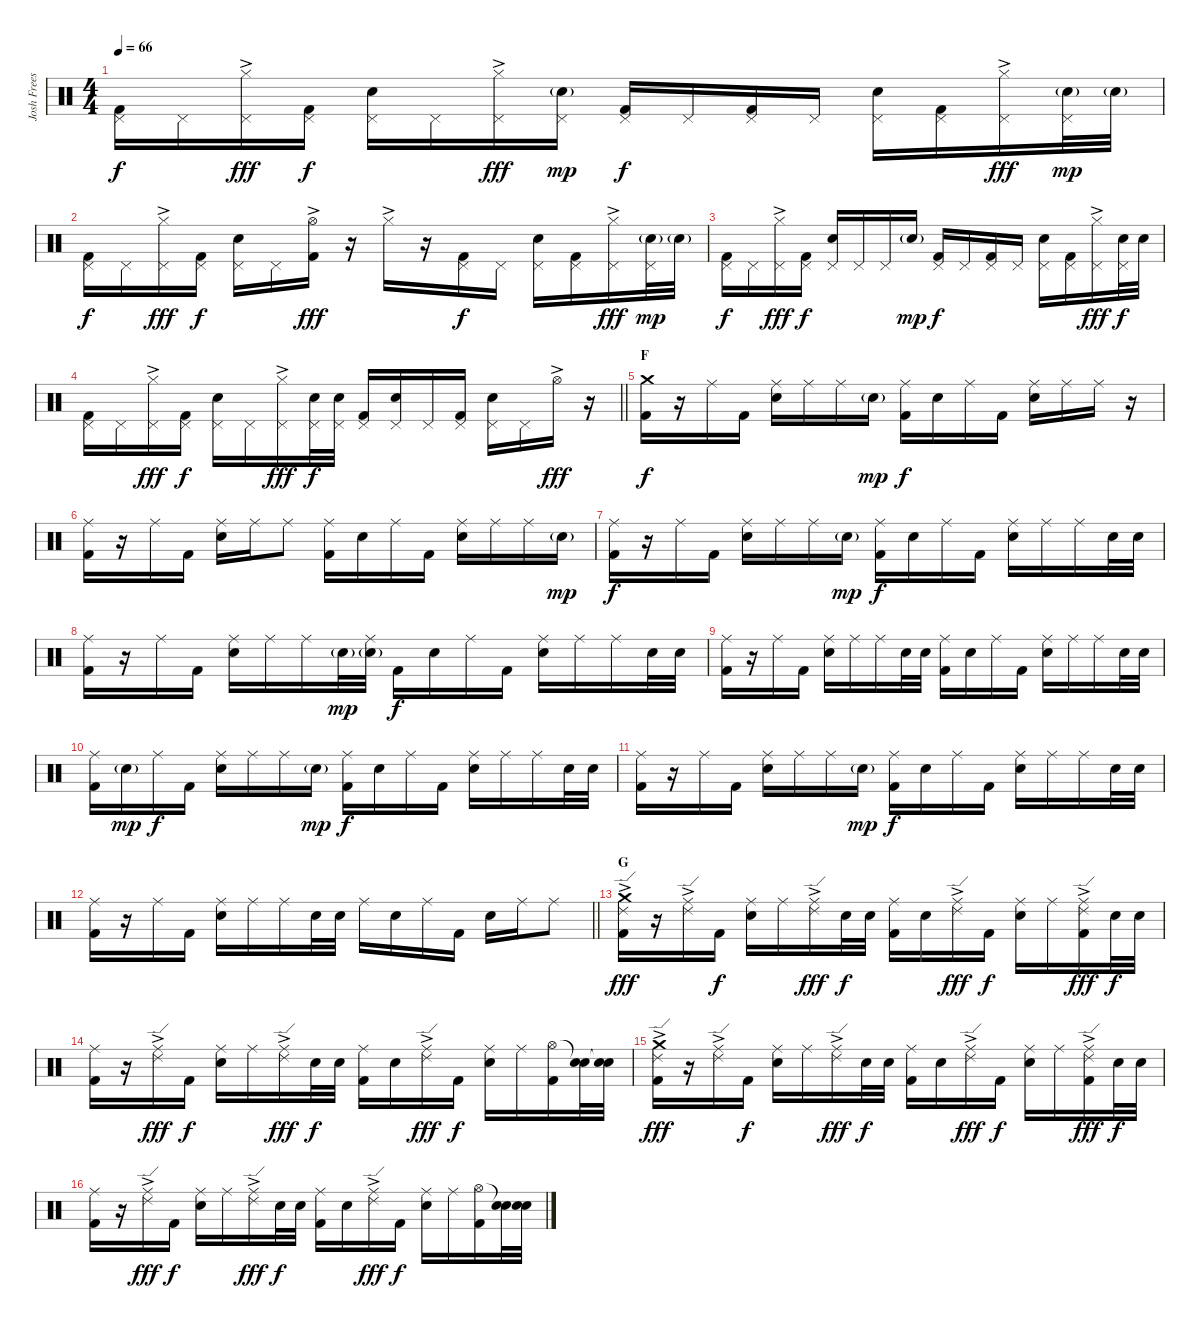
\track ("Josh Freese - Drums" "Josh Frees") {instrument percussion}
\staff {score}
\articulation defaults
\ts (4 4)
\tempo 66
\clef neutral
\ks c
("Pedal Hi-Hat (hit)" "Kick (hit) 2").16{dy f} "Pedal Hi-Hat (hit)".16 ("Hi-Hat (closed)"{ac} "Pedal Hi-Hat (hit)"{ac}).16{dy fff} ("Pedal Hi-Hat (hit)" "Kick (hit) 2").16{dy f} ("Pedal Hi-Hat (hit)" "Electric Snare (hit)").16 "Pedal Hi-Hat (hit)".16 ("Hi-Hat (closed)"{ac} "Pedal Hi-Hat (hit)"{ac}).16{dy fff} ("Pedal Hi-Hat (hit)" "Electric Snare (hit)"{g}).16{dy mp} ("Pedal Hi-Hat (hit)" "Kick (hit) 2").16{dy f} "Pedal Hi-Hat (hit)".16 ("Pedal Hi-Hat (hit)" "Kick (hit) 2").16 "Pedal Hi-Hat (hit)".16 ("Pedal Hi-Hat (hit)" "Electric Snare (hit)").16 ("Pedal Hi-Hat (hit)" "Kick (hit) 2").16 ("Hi-Hat (closed)"{ac} "Pedal Hi-Hat (hit)"{ac}).16{dy fff} ("Pedal Hi-Hat (hit)" "Electric Snare (hit)"{g}).32{dy mp} "Electric Snare (hit)"{g}.32 |
("Pedal Hi-Hat (hit)" "Kick (hit) 2").16{dy f} "Pedal Hi-Hat (hit)".16 ("Hi-Hat (closed)"{ac} "Pedal Hi-Hat (hit)"{ac}).16{dy fff} ("Pedal Hi-Hat (hit)" "Kick (hit) 2").16{dy f} ("Pedal Hi-Hat (hit)" "Electric Snare (hit)").16 "Pedal Hi-Hat (hit)".16 ("Hi-Hat (open)"{ac} "Kick (hit) 2").16{dy fff} r.16 "Hi-Hat (closed)"{ac}.16 r.16 ("Pedal Hi-Hat (hit)" "Kick (hit) 2").16{dy f} "Pedal Hi-Hat (hit)".16 ("Pedal Hi-Hat (hit)" "Electric Snare (hit)").16 ("Pedal Hi-Hat (hit)" "Kick (hit) 2").16 ("Hi-Hat (closed)"{ac} "Pedal Hi-Hat (hit)"{ac}).16{dy fff} ("Pedal Hi-Hat (hit)" "Electric Snare (hit)"{g}).32{dy mp} "Electric Snare (hit)"{g}.32 |
("Pedal Hi-Hat (hit)" "Kick (hit) 2").16{dy f} "Pedal Hi-Hat (hit)".16 ("Hi-Hat (closed)"{ac} "Pedal Hi-Hat (hit)"{ac}).16{dy fff} ("Pedal Hi-Hat (hit)" "Kick (hit) 2").16{dy f} ("Pedal Hi-Hat (hit)" "Electric Snare (hit)").16 "Pedal Hi-Hat (hit)".16 "Pedal Hi-Hat (hit)".16 "Electric Snare (hit)"{g}.16{dy mp} ("Pedal Hi-Hat (hit)" "Kick (hit) 2").16{dy f} "Pedal Hi-Hat (hit)".16 ("Pedal Hi-Hat (hit)" "Kick (hit) 2").16 "Pedal Hi-Hat (hit)".16 ("Pedal Hi-Hat (hit)" "Electric Snare (hit)").16 ("Pedal Hi-Hat (hit)" "Kick (hit) 2").16 ("Hi-Hat (closed)"{ac} "Pedal Hi-Hat (hit)"{ac}).16{dy fff} ("Pedal Hi-Hat (hit)" "Electric Snare (hit)").32{dy f} "Electric Snare (hit)".32 |
\barLineRight lightlight
("Pedal Hi-Hat (hit)" "Kick (hit) 2").16 "Pedal Hi-Hat (hit)".16 ("Hi-Hat (closed)"{ac} "Pedal Hi-Hat (hit)"{ac}).16{dy fff} ("Pedal Hi-Hat (hit)" "Kick (hit) 2").16{dy f} ("Pedal Hi-Hat (hit)" "Electric Snare (hit)").16 "Pedal Hi-Hat (hit)".16 ("Hi-Hat (closed)"{ac} "Pedal Hi-Hat (hit)"{ac}).16{dy fff} ("Pedal Hi-Hat (hit)" "Electric Snare (hit)").32{dy f} ("Pedal Hi-Hat (hit)" "Electric Snare (hit)").32 ("Pedal Hi-Hat (hit)" "Kick (hit) 2").16 ("Pedal Hi-Hat (hit)" "Electric Snare (hit)").16 "Pedal Hi-Hat (hit)".16 ("Pedal Hi-Hat (hit)" "Kick (hit) 2").16 ("Pedal Hi-Hat (hit)" "Electric Snare (hit)").16 "Pedal Hi-Hat (hit)".16 "Hi-Hat (open)"{ac}.16{dy fff} r.16 |
\section ("" "F")
("Crash medium (hit)" "Kick (hit) 2").16{dy f} r.16 "Ride (middle)".16 "Kick (hit) 2".16 ("Ride (middle)" "Electric Snare (hit)").16 "Ride (middle)".16 "Ride (middle)".16 "Snare (hit) 2"{g}.16{dy mp} ("Ride (middle)" "Kick (hit) 2").16{dy f} "Electric Snare (hit)".16 "Ride (middle)".16 "Kick (hit) 2".16 ("Ride (middle)" "Electric Snare (hit)").16 "Ride (middle)".16 "Ride (middle)".16 r.16 |
("Ride (middle)" "Kick (hit) 2").16 r.16 "Ride (middle)".16 "Kick (hit) 2".16 ("Ride (middle)" "Electric Snare (hit)").16 "Ride (middle)".16 "Ride (middle)".8 ("Ride (middle)" "Kick (hit) 2").16 "Electric Snare (hit)".16 "Ride (middle)".16 "Kick (hit) 2".16 ("Ride (middle)" "Electric Snare (hit)").16 "Ride (middle)".16 "Ride (middle)".16 "Electric Snare (hit)"{g}.16{dy mp} |
("Ride (middle)" "Kick (hit) 2").16{dy f} r.16 "Ride (middle)".16 "Kick (hit) 2".16 ("Ride (middle)" "Electric Snare (hit)").16 "Ride (middle)".16 "Ride (middle)".16 "Snare (hit) 2"{g}.16{dy mp} ("Ride (middle)" "Kick (hit) 2").16{dy f} "Electric Snare (hit)".16 "Ride (middle)".16 "Kick (hit) 2".16 ("Ride (middle)" "Electric Snare (hit)").16 "Ride (middle)".16 "Ride (middle)".16 "Electric Snare (hit)".32 "Electric Snare (hit)".32 |
("Ride (middle)" "Kick (hit) 2").16 r.16 "Ride (middle)".16 "Kick (hit) 2".16 ("Ride (middle)" "Electric Snare (hit)").16 "Ride (middle)".16 "Ride (middle)".16 "Electric Snare (hit)"{g}.32{dy mp} ("Ride (middle)" "Electric Snare (hit)"{g}).32 "Kick (hit) 2".16{dy f} "Electric Snare (hit)".16 "Ride (middle)".16 "Kick (hit) 2".16 ("Ride (middle)" "Electric Snare (hit)").16 "Ride (middle)".16 "Ride (middle)".16 "Electric Snare (hit)".32 "Electric Snare (hit)".32 |
("Ride (middle)" "Kick (hit) 2").16 r.16 "Ride (middle)".16 "Kick (hit) 2".16 ("Ride (middle)" "Electric Snare (hit)").16 "Ride (middle)".16 "Ride (middle)".16 "Electric Snare (hit)".32 "Electric Snare (hit)".32 ("Ride (middle)" "Kick (hit) 2").16 "Electric Snare (hit)".16 "Ride (middle)".16 "Kick (hit) 2".16 ("Ride (middle)" "Electric Snare (hit)").16 "Ride (middle)".16 "Ride (middle)".16 "Electric Snare (hit)".32 "Electric Snare (hit)".32 |
("Ride (middle)" "Kick (hit) 2").16 "Electric Snare (hit)"{g}.16{dy mp} "Ride (middle)".16{dy f} "Kick (hit) 2".16 ("Ride (middle)" "Electric Snare (hit)").16 "Ride (middle)".16 "Ride (middle)".16 "Snare (hit) 2"{g}.16{dy mp} ("Ride (middle)" "Kick (hit) 2").16{dy f} "Electric Snare (hit)".16 "Ride (middle)".16 "Kick (hit) 2".16 ("Ride (middle)" "Electric Snare (hit)").16 "Ride (middle)".16 "Ride (middle)".16 "Electric Snare (hit)".32 "Electric Snare (hit)".32 |
("Ride (middle)" "Kick (hit) 2").16 r.16 "Ride (middle)".16 "Kick (hit) 2".16 ("Ride (middle)" "Electric Snare (hit)").16 "Ride (middle)".16 "Ride (middle)".16 "Snare (hit) 2"{g}.16{dy mp} ("Ride (middle)" "Kick (hit) 2").16{dy f} "Electric Snare (hit)".16 "Ride (middle)".16 "Kick (hit) 2".16 ("Ride (middle)" "Electric Snare (hit)").16 "Ride (middle)".16 "Ride (middle)".16 "Electric Snare (hit)".32 "Electric Snare (hit)".32 |
\barLineRight lightlight
("Ride (middle)" "Kick (hit) 2").16 r.16 "Ride (middle)".16 "Kick (hit) 2".16 ("Ride (middle)" "Electric Snare (hit)").16 "Ride (middle)".16 "Ride (middle)".16 "Electric Snare (hit)".32 "Electric Snare (hit)".32 "Ride (middle)".16 "Electric Snare (hit)".16 "Ride (middle)".16 "Kick (hit) 2".16 "Electric Snare (hit)".16 "Ride (middle)".16 "Ride (middle)".8 |
\section ("" "G")
("Crash medium (hit)"{ac} "Ride (edge) 2"{ac} "Kick (hit) 2").16{dy fff} r.16 ("Ride (edge) 2"{ac} "Ride (middle)").16 "Kick (hit) 2".16{dy f} ("Ride (middle)" "Electric Snare (hit)").16 "Ride (middle)".16 ("Ride (edge) 2"{ac} "Ride (middle)").16{dy fff} "Electric Snare (hit)".32{dy f} "Electric Snare (hit)".32 ("Ride (middle)" "Kick (hit) 2").16 "Electric Snare (hit)".16 ("Ride (edge) 2"{ac} "Ride (middle)").16{dy fff} "Kick (hit) 2".16{dy f} ("Ride (middle)" "Electric Snare (hit)").16 "Ride (middle)".16 ("Ride (edge) 2"{ac} "Ride (middle)" "Kick (hit) 2").16{dy fff} "Electric Snare (hit)".32{dy f} "Electric Snare (hit)".32 |
("Ride (middle)" "Kick (hit) 2").16 r.16 ("Ride (edge) 2"{ac} "Ride (middle)").16{dy fff} "Kick (hit) 2".16{dy f} ("Ride (middle)" "Electric Snare (hit)").16 "Ride (middle)".16 ("Ride (edge) 2"{ac} "Ride (middle)").16{dy fff} "Electric Snare (hit)".32{dy f} "Electric Snare (hit)".32 ("Ride (middle)" "Kick (hit) 2").16 "Electric Snare (hit)".16 ("Ride (edge) 2"{ac} "Ride (middle)").16{dy fff} "Kick (hit) 2".16{dy f} ("Ride (middle)" "Electric Snare (hit)").16 "Ride (middle)".16 ("Hi-Hat (open)" "Kick (hit) 2").16 ("Snare (hit)"{t} "Electric Snare (hit)").32 ("Snare (hit)"{t} "Electric Snare (hit)").32 |
("Crash medium (hit)"{ac} "Ride (edge) 2"{ac} "Kick (hit) 2").16{dy fff} r.16 ("Ride (edge) 2"{ac} "Ride (middle)").16 "Kick (hit) 2".16{dy f} ("Ride (middle)" "Electric Snare (hit)").16 "Ride (middle)".16 ("Ride (edge) 2"{ac} "Ride (middle)").16{dy fff} "Electric Snare (hit)".32{dy f} "Electric Snare (hit)".32 ("Ride (middle)" "Kick (hit) 2").16 "Electric Snare (hit)".16 ("Ride (edge) 2"{ac} "Ride (middle)").16{dy fff} "Kick (hit) 2".16{dy f} ("Ride (middle)" "Electric Snare (hit)").16 "Ride (middle)".16 ("Ride (edge) 2"{ac} "Ride (middle)" "Kick (hit) 2").16{dy fff} "Electric Snare (hit)".32{dy f} "Electric Snare (hit)".32 |
("Ride (middle)" "Kick (hit) 2").16 r.16 ("Ride (edge) 2"{ac} "Ride (middle)").16{dy fff} "Kick (hit) 2".16{dy f} ("Ride (middle)" "Electric Snare (hit)").16 "Ride (middle)".16 ("Ride (edge) 2"{ac} "Ride (middle)").16{dy fff} "Electric Snare (hit)".32{dy f} "Electric Snare (hit)".32 ("Ride (middle)" "Kick (hit) 2").16 "Electric Snare (hit)".16 ("Ride (edge) 2"{ac} "Ride (middle)").16{dy fff} "Kick (hit) 2".16{dy f} ("Ride (middle)" "Electric Snare (hit)").16 "Ride (middle)".16 ("Hi-Hat (open)" "Kick (hit) 2").16 ("Snare (hit)"{t} "Electric Snare (hit)").32 ("Snare (hit)"{t} "Electric Snare (hit)").32
